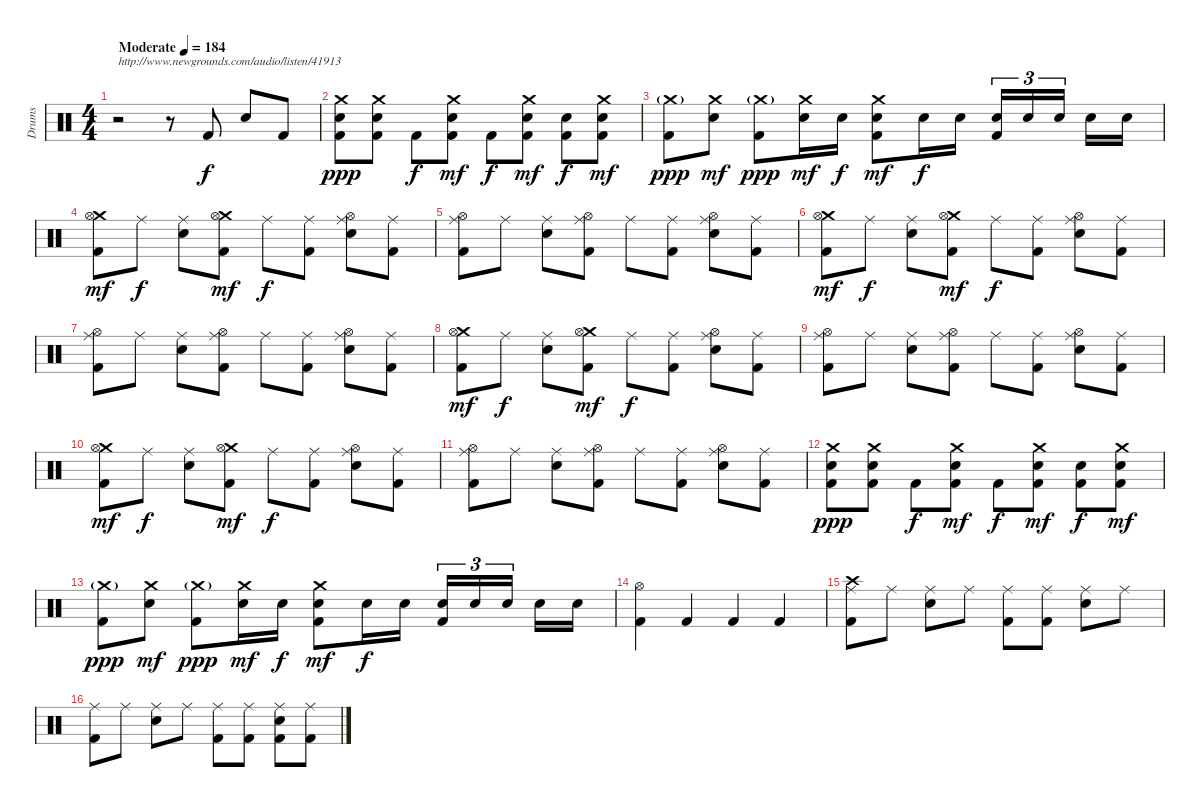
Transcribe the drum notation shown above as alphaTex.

\track ("Drums" "Drums") {instrument percussion}
\staff {score}
\articulation defaults
\ts (4 4)
\tempo (184 "Moderate")
\clef neutral
\ks c
r.2{txt "http://www.newgrounds.com/audio/listen/41913" dy f} r.8 "Kick (hit) 2".8 "Electric Snare (hit)".8 "Kick (hit) 2".8 |
("Crash medium (hit)" "Electric Snare (hit)" "Kick (hit) 2").8{dy ppp} ("Crash medium (hit)" "Electric Snare (hit)" "Kick (hit) 2").8 "Kick (hit) 2".8{dy f} ("Crash medium (hit)" "Electric Snare (hit)" "Kick (hit) 2").8{dy mf} "Kick (hit) 2".8{dy f} ("Crash medium (hit)" "Electric Snare (hit)" "Kick (hit) 2").8{dy mf} ("Electric Snare (hit)" "Kick (hit) 2").8{dy f} ("Crash medium (hit)" "Electric Snare (hit)" "Kick (hit) 2").8{dy mf} |
("Crash medium (hit)"{g} "Kick (hit) 2").8{dy ppp} ("Crash medium (hit)" "Electric Snare (hit)").8{dy mf} ("Crash medium (hit)"{g} "Kick (hit) 2").8{dy ppp} ("Crash medium (hit)" "Electric Snare (hit)").16{dy mf} "Electric Snare (hit)".16{dy f} ("Crash medium (hit)" "Electric Snare (hit)" "Kick (hit) 2").8{dy mf} "Electric Snare (hit)".16{dy f} "Electric Snare (hit)".16 ("Electric Snare (hit)" "Kick (hit) 2").16{tu (3 2)} "Electric Snare (hit)".16{tu (3 2)} "Electric Snare (hit)".16{tu (3 2) beam splitsecondary} "Electric Snare (hit)".16 "Electric Snare (hit)".16 |
("Crash medium (hit)" "Hi-Hat (open)" "Kick (hit) 2").8{dy mf} "Ride (middle)".8{dy f} ("Ride (middle)" "Electric Snare (hit)").8 ("Crash medium (hit)" "Hi-Hat (open)" "Kick (hit) 2").8{dy mf} "Ride (middle)".8{dy f} ("Ride (middle)" "Kick (hit) 2").8 ("Ride (middle)" "Hi-Hat (open)" "Electric Snare (hit)").8 ("Ride (middle)" "Kick (hit) 2").8 |
("Ride (middle)" "Hi-Hat (open)" "Kick (hit) 2").8 "Ride (middle)".8 ("Ride (middle)" "Electric Snare (hit)").8 ("Ride (middle)" "Hi-Hat (open)" "Kick (hit) 2").8 "Ride (middle)".8 ("Ride (middle)" "Kick (hit) 2").8 ("Ride (middle)" "Hi-Hat (open)" "Electric Snare (hit)").8 ("Ride (middle)" "Kick (hit) 2").8 |
("Crash medium (hit)" "Hi-Hat (open)" "Kick (hit) 2").8{dy mf} "Ride (middle)".8{dy f} ("Ride (middle)" "Electric Snare (hit)").8 ("Crash medium (hit)" "Hi-Hat (open)" "Kick (hit) 2").8{dy mf} "Ride (middle)".8{dy f} ("Ride (middle)" "Kick (hit) 2").8 ("Ride (middle)" "Hi-Hat (open)" "Electric Snare (hit)").8 ("Ride (middle)" "Kick (hit) 2").8 |
("Ride (middle)" "Hi-Hat (open)" "Kick (hit) 2").8 "Ride (middle)".8 ("Ride (middle)" "Electric Snare (hit)").8 ("Ride (middle)" "Hi-Hat (open)" "Kick (hit) 2").8 "Ride (middle)".8 ("Ride (middle)" "Kick (hit) 2").8 ("Ride (middle)" "Hi-Hat (open)" "Electric Snare (hit)").8 ("Ride (middle)" "Kick (hit) 2").8 |
("Crash medium (hit)" "Hi-Hat (open)" "Kick (hit) 2").8{dy mf} "Ride (middle)".8{dy f} ("Ride (middle)" "Electric Snare (hit)").8 ("Crash medium (hit)" "Hi-Hat (open)" "Kick (hit) 2").8{dy mf} "Ride (middle)".8{dy f} ("Ride (middle)" "Kick (hit) 2").8 ("Ride (middle)" "Hi-Hat (open)" "Electric Snare (hit)").8 ("Ride (middle)" "Kick (hit) 2").8 |
("Ride (middle)" "Hi-Hat (open)" "Kick (hit) 2").8 "Ride (middle)".8 ("Ride (middle)" "Electric Snare (hit)").8 ("Ride (middle)" "Hi-Hat (open)" "Kick (hit) 2").8 "Ride (middle)".8 ("Ride (middle)" "Kick (hit) 2").8 ("Ride (middle)" "Hi-Hat (open)" "Electric Snare (hit)").8 ("Ride (middle)" "Kick (hit) 2").8 |
("Crash medium (hit)" "Hi-Hat (open)" "Kick (hit) 2").8{dy mf} "Ride (middle)".8{dy f} ("Ride (middle)" "Electric Snare (hit)").8 ("Crash medium (hit)" "Hi-Hat (open)" "Kick (hit) 2").8{dy mf} "Ride (middle)".8{dy f} ("Ride (middle)" "Kick (hit) 2").8 ("Ride (middle)" "Hi-Hat (open)" "Electric Snare (hit)").8 ("Ride (middle)" "Kick (hit) 2").8 |
("Ride (middle)" "Hi-Hat (open)" "Kick (hit) 2").8 "Ride (middle)".8 ("Ride (middle)" "Electric Snare (hit)").8 ("Ride (middle)" "Hi-Hat (open)" "Kick (hit) 2").8 "Ride (middle)".8 ("Ride (middle)" "Kick (hit) 2").8 ("Ride (middle)" "Hi-Hat (open)" "Electric Snare (hit)").8 ("Ride (middle)" "Kick (hit) 2").8 |
("Crash medium (hit)" "Electric Snare (hit)" "Kick (hit) 2").8{dy ppp} ("Crash medium (hit)" "Electric Snare (hit)" "Kick (hit) 2").8 "Kick (hit) 2".8{dy f} ("Crash medium (hit)" "Electric Snare (hit)" "Kick (hit) 2").8{dy mf} "Kick (hit) 2".8{dy f} ("Crash medium (hit)" "Electric Snare (hit)" "Kick (hit) 2").8{dy mf} ("Electric Snare (hit)" "Kick (hit) 2").8{dy f} ("Crash medium (hit)" "Electric Snare (hit)" "Kick (hit) 2").8{dy mf} |
("Crash medium (hit)"{g} "Kick (hit) 2").8{dy ppp} ("Crash medium (hit)" "Electric Snare (hit)").8{dy mf} ("Crash medium (hit)"{g} "Kick (hit) 2").8{dy ppp} ("Crash medium (hit)" "Electric Snare (hit)").16{dy mf} "Electric Snare (hit)".16{dy f} ("Crash medium (hit)" "Electric Snare (hit)" "Kick (hit) 2").8{dy mf} "Electric Snare (hit)".16{dy f} "Electric Snare (hit)".16 ("Electric Snare (hit)" "Kick (hit) 2").16{tu (3 2)} "Electric Snare (hit)".16{tu (3 2)} "Electric Snare (hit)".16{tu (3 2) beam splitsecondary} "Electric Snare (hit)".16 "Electric Snare (hit)".16 |
("Hi-Hat (open)" "Kick (hit) 2").4 "Kick (hit) 2".4 "Kick (hit) 2".4 "Kick (hit) 2".4 |
("Ride (middle)" "Crash high (hit)" "Kick (hit) 2").8 "Ride (middle)".8 ("Ride (middle)" "Electric Snare (hit)").8 "Ride (middle)".8 ("Ride (middle)" "Kick (hit) 2").8 ("Ride (middle)" "Kick (hit) 2").8 ("Ride (middle)" "Electric Snare (hit)").8 "Ride (middle)".8 |
("Ride (middle)" "Kick (hit) 2").8 "Ride (middle)".8 ("Ride (middle)" "Electric Snare (hit)").8 "Ride (middle)".8 ("Ride (middle)" "Kick (hit) 2").8 ("Ride (middle)" "Kick (hit) 2").8 ("Ride (middle)" "Electric Snare (hit)" "Kick (hit) 2").8 ("Ride (middle)" "Kick (hit) 2").8
